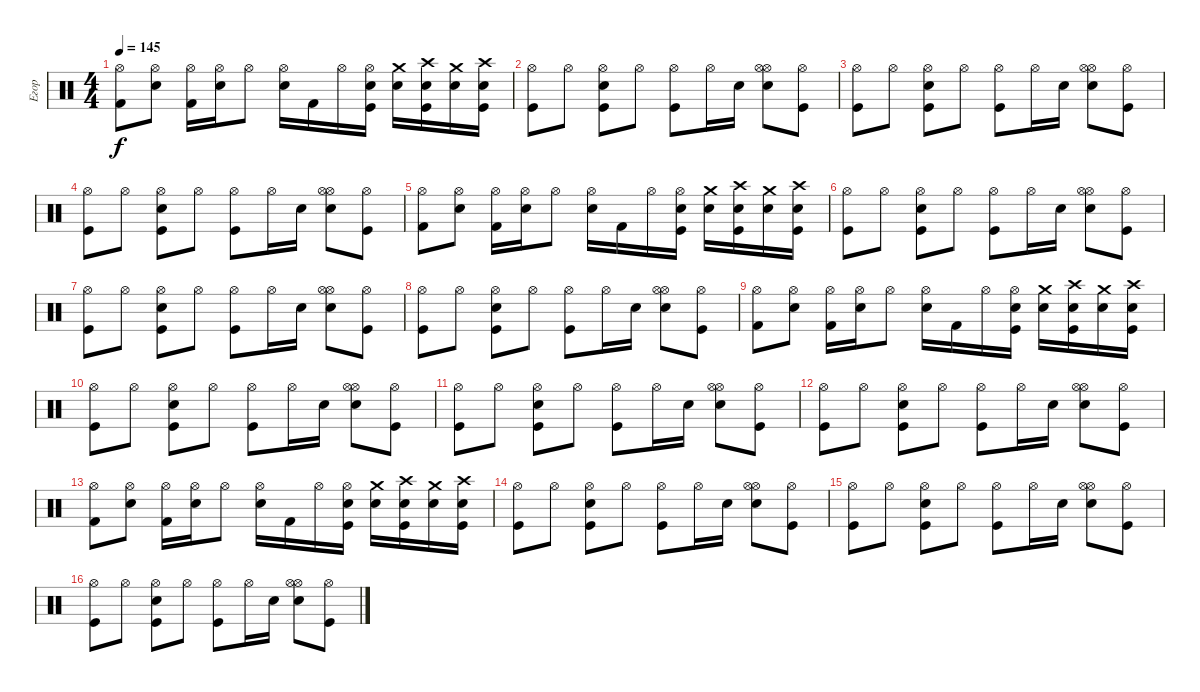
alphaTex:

\track ("Егор" "Егор") {instrument percussion}
\staff {score}
\articulation defaults
\ts (4 4)
\tempo 145
\clef neutral
\ks c
("Hi-Hat (open)" "Kick (hit) 2").8{dy f} ("Hi-Hat (open)" "Electric Snare (hit)").8 ("Hi-Hat (open)" "Kick (hit) 2").16 ("Hi-Hat (open)" "Electric Snare (hit)").16 "Hi-Hat (open)".8 ("Hi-Hat (open)" "Electric Snare (hit)").16 "Kick (hit) 2".16 "Hi-Hat (open)".16 ("Hi-Hat (open)" "Electric Snare (hit)" "Kick (hit)").16 ("Crash medium (hit)" "Electric Snare (hit)").16 ("Crash high (hit)" "Electric Snare (hit)" "Kick (hit)").16 ("Crash medium (hit)" "Electric Snare (hit)").16 ("Crash high (hit)" "Electric Snare (hit)" "Kick (hit)").16 |
("Hi-Hat (open)" "Kick (hit)").8 "Hi-Hat (open)".8 ("Hi-Hat (open)" "Electric Snare (hit)" "Kick (hit)").8 "Hi-Hat (open)".8 ("Hi-Hat (open)" "Kick (hit)").8 "Hi-Hat (open)".16 "Electric Snare (hit)".16 ("Hi-Hat (open)" "Electric Snare (hit)" "Hi-Hat (open)").8 ("Hi-Hat (open)" "Kick (hit)").8 |
("Hi-Hat (open)" "Kick (hit)").8 "Hi-Hat (open)".8 ("Hi-Hat (open)" "Electric Snare (hit)" "Kick (hit)").8 "Hi-Hat (open)".8 ("Hi-Hat (open)" "Kick (hit)").8 "Hi-Hat (open)".16 "Electric Snare (hit)".16 ("Hi-Hat (open)" "Electric Snare (hit)" "Hi-Hat (open)").8 ("Hi-Hat (open)" "Kick (hit)").8 |
("Hi-Hat (open)" "Kick (hit)").8 "Hi-Hat (open)".8 ("Hi-Hat (open)" "Electric Snare (hit)" "Kick (hit)").8 "Hi-Hat (open)".8 ("Hi-Hat (open)" "Kick (hit)").8 "Hi-Hat (open)".16 "Electric Snare (hit)".16 ("Hi-Hat (open)" "Electric Snare (hit)" "Hi-Hat (open)").8 ("Hi-Hat (open)" "Kick (hit)").8 |
("Hi-Hat (open)" "Kick (hit) 2").8 ("Hi-Hat (open)" "Electric Snare (hit)").8 ("Hi-Hat (open)" "Kick (hit) 2").16 ("Hi-Hat (open)" "Electric Snare (hit)").16 "Hi-Hat (open)".8 ("Hi-Hat (open)" "Electric Snare (hit)").16 "Kick (hit) 2".16 "Hi-Hat (open)".16 ("Hi-Hat (open)" "Electric Snare (hit)" "Kick (hit)").16 ("Crash medium (hit)" "Electric Snare (hit)").16 ("Crash high (hit)" "Electric Snare (hit)" "Kick (hit)").16 ("Crash medium (hit)" "Electric Snare (hit)").16 ("Crash high (hit)" "Electric Snare (hit)" "Kick (hit)").16 |
("Hi-Hat (open)" "Kick (hit)").8 "Hi-Hat (open)".8 ("Hi-Hat (open)" "Electric Snare (hit)" "Kick (hit)").8 "Hi-Hat (open)".8 ("Hi-Hat (open)" "Kick (hit)").8 "Hi-Hat (open)".16 "Electric Snare (hit)".16 ("Hi-Hat (open)" "Electric Snare (hit)" "Hi-Hat (open)").8 ("Hi-Hat (open)" "Kick (hit)").8 |
("Hi-Hat (open)" "Kick (hit)").8 "Hi-Hat (open)".8 ("Hi-Hat (open)" "Electric Snare (hit)" "Kick (hit)").8 "Hi-Hat (open)".8 ("Hi-Hat (open)" "Kick (hit)").8 "Hi-Hat (open)".16 "Electric Snare (hit)".16 ("Hi-Hat (open)" "Electric Snare (hit)" "Hi-Hat (open)").8 ("Hi-Hat (open)" "Kick (hit)").8 |
("Hi-Hat (open)" "Kick (hit)").8 "Hi-Hat (open)".8 ("Hi-Hat (open)" "Electric Snare (hit)" "Kick (hit)").8 "Hi-Hat (open)".8 ("Hi-Hat (open)" "Kick (hit)").8 "Hi-Hat (open)".16 "Electric Snare (hit)".16 ("Hi-Hat (open)" "Electric Snare (hit)" "Hi-Hat (open)").8 ("Hi-Hat (open)" "Kick (hit)").8 |
("Hi-Hat (open)" "Kick (hit) 2").8 ("Hi-Hat (open)" "Electric Snare (hit)").8 ("Hi-Hat (open)" "Kick (hit) 2").16 ("Hi-Hat (open)" "Electric Snare (hit)").16 "Hi-Hat (open)".8 ("Hi-Hat (open)" "Electric Snare (hit)").16 "Kick (hit) 2".16 "Hi-Hat (open)".16 ("Hi-Hat (open)" "Electric Snare (hit)" "Kick (hit)").16 ("Crash medium (hit)" "Electric Snare (hit)").16 ("Crash high (hit)" "Electric Snare (hit)" "Kick (hit)").16 ("Crash medium (hit)" "Electric Snare (hit)").16 ("Crash high (hit)" "Electric Snare (hit)" "Kick (hit)").16 |
("Hi-Hat (open)" "Kick (hit)").8 "Hi-Hat (open)".8 ("Hi-Hat (open)" "Electric Snare (hit)" "Kick (hit)").8 "Hi-Hat (open)".8 ("Hi-Hat (open)" "Kick (hit)").8 "Hi-Hat (open)".16 "Electric Snare (hit)".16 ("Hi-Hat (open)" "Electric Snare (hit)" "Hi-Hat (open)").8 ("Hi-Hat (open)" "Kick (hit)").8 |
("Hi-Hat (open)" "Kick (hit)").8 "Hi-Hat (open)".8 ("Hi-Hat (open)" "Electric Snare (hit)" "Kick (hit)").8 "Hi-Hat (open)".8 ("Hi-Hat (open)" "Kick (hit)").8 "Hi-Hat (open)".16 "Electric Snare (hit)".16 ("Hi-Hat (open)" "Electric Snare (hit)" "Hi-Hat (open)").8 ("Hi-Hat (open)" "Kick (hit)").8 |
("Hi-Hat (open)" "Kick (hit)").8 "Hi-Hat (open)".8 ("Hi-Hat (open)" "Electric Snare (hit)" "Kick (hit)").8 "Hi-Hat (open)".8 ("Hi-Hat (open)" "Kick (hit)").8 "Hi-Hat (open)".16 "Electric Snare (hit)".16 ("Hi-Hat (open)" "Electric Snare (hit)" "Hi-Hat (open)").8 ("Hi-Hat (open)" "Kick (hit)").8 |
("Hi-Hat (open)" "Kick (hit) 2").8 ("Hi-Hat (open)" "Electric Snare (hit)").8 ("Hi-Hat (open)" "Kick (hit) 2").16 ("Hi-Hat (open)" "Electric Snare (hit)").16 "Hi-Hat (open)".8 ("Hi-Hat (open)" "Electric Snare (hit)").16 "Kick (hit) 2".16 "Hi-Hat (open)".16 ("Hi-Hat (open)" "Electric Snare (hit)" "Kick (hit)").16 ("Crash medium (hit)" "Electric Snare (hit)").16 ("Crash high (hit)" "Electric Snare (hit)" "Kick (hit)").16 ("Crash medium (hit)" "Electric Snare (hit)").16 ("Crash high (hit)" "Electric Snare (hit)" "Kick (hit)").16 |
("Hi-Hat (open)" "Kick (hit)").8 "Hi-Hat (open)".8 ("Hi-Hat (open)" "Electric Snare (hit)" "Kick (hit)").8 "Hi-Hat (open)".8 ("Hi-Hat (open)" "Kick (hit)").8 "Hi-Hat (open)".16 "Electric Snare (hit)".16 ("Hi-Hat (open)" "Electric Snare (hit)" "Hi-Hat (open)").8 ("Hi-Hat (open)" "Kick (hit)").8 |
("Hi-Hat (open)" "Kick (hit)").8 "Hi-Hat (open)".8 ("Hi-Hat (open)" "Electric Snare (hit)" "Kick (hit)").8 "Hi-Hat (open)".8 ("Hi-Hat (open)" "Kick (hit)").8 "Hi-Hat (open)".16 "Electric Snare (hit)".16 ("Hi-Hat (open)" "Electric Snare (hit)" "Hi-Hat (open)").8 ("Hi-Hat (open)" "Kick (hit)").8 |
("Hi-Hat (open)" "Kick (hit)").8 "Hi-Hat (open)".8 ("Hi-Hat (open)" "Electric Snare (hit)" "Kick (hit)").8 "Hi-Hat (open)".8 ("Hi-Hat (open)" "Kick (hit)").8 "Hi-Hat (open)".16 "Electric Snare (hit)".16 ("Hi-Hat (open)" "Electric Snare (hit)" "Hi-Hat (open)").8 ("Hi-Hat (open)" "Kick (hit)").8
